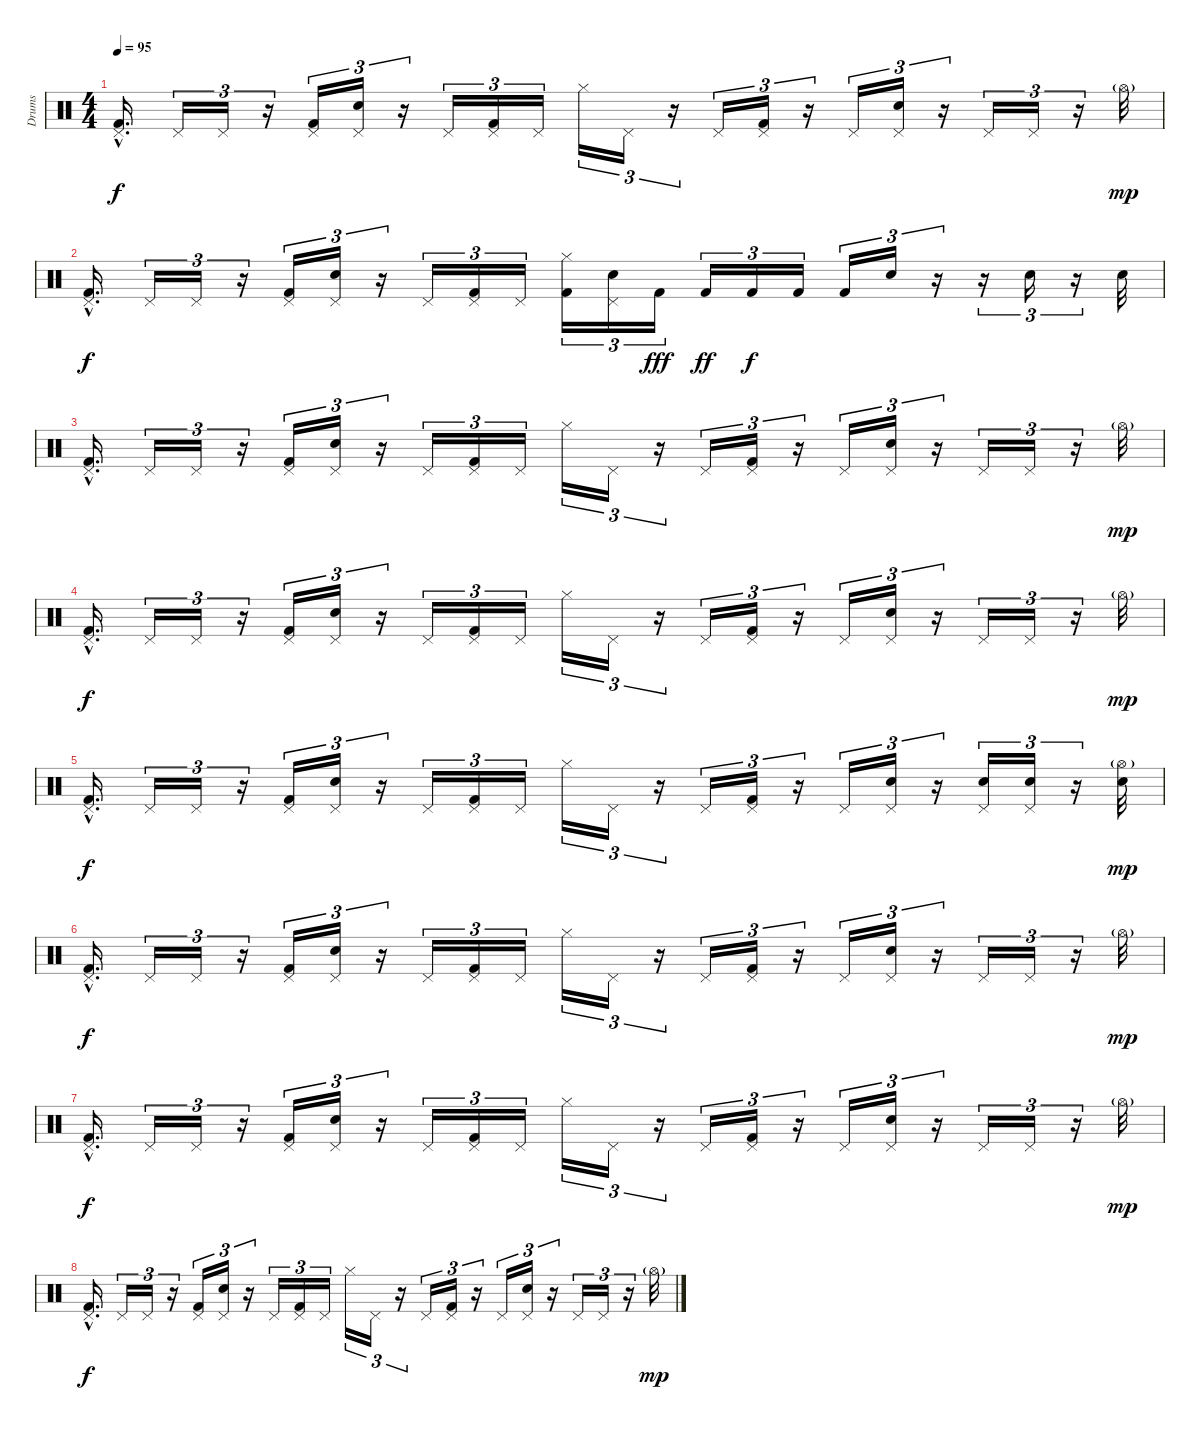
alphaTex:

\track ("Drums" "Drums") {instrument percussion}
\staff {score}
\articulation defaults
\ts (4 4)
\tempo 95
\clef neutral
\ks c
("Pedal Hi-Hat (hit)"{hac} "Kick (hit) 2"{hac}).16{d dy f} "Pedal Hi-Hat (hit)".16{tu (3 2)} "Pedal Hi-Hat (hit)".16{tu (3 2)} r.16{tu (3 2)} ("Pedal Hi-Hat (hit)" "Kick (hit) 2").16{tu (3 2)} ("Pedal Hi-Hat (hit)" "Electric Snare (hit)").16{tu (3 2)} r.16{tu (3 2)} "Pedal Hi-Hat (hit)".16{tu (3 2)} ("Pedal Hi-Hat (hit)" "Kick (hit) 2").16{tu (3 2)} "Pedal Hi-Hat (hit)".16{tu (3 2)} "Hi-Hat (closed)".16{tu (3 2)} "Pedal Hi-Hat (hit)".16{tu (3 2)} r.16{tu (3 2)} "Pedal Hi-Hat (hit)".16{tu (3 2)} ("Pedal Hi-Hat (hit)" "Kick (hit) 2").16{tu (3 2)} r.16{tu (3 2)} "Pedal Hi-Hat (hit)".16{tu (3 2)} ("Pedal Hi-Hat (hit)" "Electric Snare (hit)").16{tu (3 2)} r.16{tu (3 2)} "Pedal Hi-Hat (hit)".16{tu (3 2)} "Pedal Hi-Hat (hit)".16{tu (3 2)} r.16{tu (3 2)} "Hi-Hat (open)"{g}.32{dy mp} |
("Pedal Hi-Hat (hit)"{hac} "Kick (hit) 2"{hac}).16{d dy f} "Pedal Hi-Hat (hit)".16{tu (3 2)} "Pedal Hi-Hat (hit)".16{tu (3 2)} r.16{tu (3 2)} ("Pedal Hi-Hat (hit)" "Kick (hit) 2").16{tu (3 2)} ("Pedal Hi-Hat (hit)" "Electric Snare (hit)").16{tu (3 2)} r.16{tu (3 2)} "Pedal Hi-Hat (hit)".16{tu (3 2)} ("Pedal Hi-Hat (hit)" "Kick (hit) 2").16{tu (3 2)} "Pedal Hi-Hat (hit)".16{tu (3 2)} ("Hi-Hat (closed)" "Kick (hit) 2").16{tu (3 2)} ("Pedal Hi-Hat (hit)" "Electric Snare (hit)").16{tu (3 2)} "Kick (hit) 2".16{tu (3 2) dy fff} "Kick (hit) 2".16{tu (3 2) dy ff} "Kick (hit) 2".16{tu (3 2) dy f} "Kick (hit) 2".16{tu (3 2)} "Kick (hit) 2".16{tu (3 2)} "Electric Snare (hit)".16{tu (3 2)} r.16{tu (3 2)} r.16{tu (3 2)} "Electric Snare (hit)".16{tu (3 2)} r.16{tu (3 2)} "Electric Snare (hit)".32 |
("Pedal Hi-Hat (hit)"{hac} "Kick (hit) 2"{hac}).16{d} "Pedal Hi-Hat (hit)".16{tu (3 2)} "Pedal Hi-Hat (hit)".16{tu (3 2)} r.16{tu (3 2)} ("Pedal Hi-Hat (hit)" "Kick (hit) 2").16{tu (3 2)} ("Pedal Hi-Hat (hit)" "Electric Snare (hit)").16{tu (3 2)} r.16{tu (3 2)} "Pedal Hi-Hat (hit)".16{tu (3 2)} ("Pedal Hi-Hat (hit)" "Kick (hit) 2").16{tu (3 2)} "Pedal Hi-Hat (hit)".16{tu (3 2)} "Hi-Hat (closed)".16{tu (3 2)} "Pedal Hi-Hat (hit)".16{tu (3 2)} r.16{tu (3 2)} "Pedal Hi-Hat (hit)".16{tu (3 2)} ("Pedal Hi-Hat (hit)" "Kick (hit) 2").16{tu (3 2)} r.16{tu (3 2)} "Pedal Hi-Hat (hit)".16{tu (3 2)} ("Pedal Hi-Hat (hit)" "Electric Snare (hit)").16{tu (3 2)} r.16{tu (3 2)} "Pedal Hi-Hat (hit)".16{tu (3 2)} "Pedal Hi-Hat (hit)".16{tu (3 2)} r.16{tu (3 2)} "Hi-Hat (open)"{g}.32{dy mp} |
("Pedal Hi-Hat (hit)"{hac} "Kick (hit) 2"{hac}).16{d dy f volume 13} "Pedal Hi-Hat (hit)".16{tu (3 2)} "Pedal Hi-Hat (hit)".16{tu (3 2)} r.16{tu (3 2)} ("Pedal Hi-Hat (hit)" "Kick (hit) 2").16{tu (3 2)} ("Pedal Hi-Hat (hit)" "Electric Snare (hit)").16{tu (3 2)} r.16{tu (3 2)} "Pedal Hi-Hat (hit)".16{tu (3 2)} ("Pedal Hi-Hat (hit)" "Kick (hit) 2").16{tu (3 2)} "Pedal Hi-Hat (hit)".16{tu (3 2)} "Hi-Hat (closed)".16{tu (3 2)} "Pedal Hi-Hat (hit)".16{tu (3 2)} r.16{tu (3 2)} "Pedal Hi-Hat (hit)".16{tu (3 2)} ("Pedal Hi-Hat (hit)" "Kick (hit) 2").16{tu (3 2)} r.16{tu (3 2)} "Pedal Hi-Hat (hit)".16{tu (3 2)} ("Pedal Hi-Hat (hit)" "Electric Snare (hit)").16{tu (3 2)} r.16{tu (3 2)} "Pedal Hi-Hat (hit)".16{tu (3 2)} "Pedal Hi-Hat (hit)".16{tu (3 2)} r.16{tu (3 2)} "Hi-Hat (open)"{g}.32{dy mp} |
("Pedal Hi-Hat (hit)"{hac} "Kick (hit) 2"{hac}).16{d dy f} "Pedal Hi-Hat (hit)".16{tu (3 2)} "Pedal Hi-Hat (hit)".16{tu (3 2)} r.16{tu (3 2)} ("Pedal Hi-Hat (hit)" "Kick (hit) 2").16{tu (3 2)} ("Pedal Hi-Hat (hit)" "Electric Snare (hit)").16{tu (3 2)} r.16{tu (3 2)} "Pedal Hi-Hat (hit)".16{tu (3 2)} ("Pedal Hi-Hat (hit)" "Kick (hit) 2").16{tu (3 2)} "Pedal Hi-Hat (hit)".16{tu (3 2)} "Hi-Hat (closed)".16{tu (3 2)} "Pedal Hi-Hat (hit)".16{tu (3 2)} r.16{tu (3 2)} "Pedal Hi-Hat (hit)".16{tu (3 2)} ("Pedal Hi-Hat (hit)" "Kick (hit) 2").16{tu (3 2)} r.16{tu (3 2)} "Pedal Hi-Hat (hit)".16{tu (3 2)} ("Pedal Hi-Hat (hit)" "Electric Snare (hit)").16{tu (3 2)} r.16{tu (3 2)} ("Pedal Hi-Hat (hit)" "Electric Snare (hit)").16{tu (3 2)} ("Pedal Hi-Hat (hit)" "Electric Snare (hit)").16{tu (3 2)} r.16{tu (3 2)} ("Hi-Hat (open)"{g} "Electric Snare (hit)").32{dy mp} |
("Pedal Hi-Hat (hit)"{hac} "Kick (hit) 2"{hac}).16{d dy f} "Pedal Hi-Hat (hit)".16{tu (3 2)} "Pedal Hi-Hat (hit)".16{tu (3 2)} r.16{tu (3 2)} ("Pedal Hi-Hat (hit)" "Kick (hit) 2").16{tu (3 2)} ("Pedal Hi-Hat (hit)" "Electric Snare (hit)").16{tu (3 2)} r.16{tu (3 2)} "Pedal Hi-Hat (hit)".16{tu (3 2)} ("Pedal Hi-Hat (hit)" "Kick (hit) 2").16{tu (3 2)} "Pedal Hi-Hat (hit)".16{tu (3 2)} "Hi-Hat (closed)".16{tu (3 2)} "Pedal Hi-Hat (hit)".16{tu (3 2)} r.16{tu (3 2)} "Pedal Hi-Hat (hit)".16{tu (3 2)} ("Pedal Hi-Hat (hit)" "Kick (hit) 2").16{tu (3 2)} r.16{tu (3 2)} "Pedal Hi-Hat (hit)".16{tu (3 2)} ("Pedal Hi-Hat (hit)" "Electric Snare (hit)").16{tu (3 2)} r.16{tu (3 2)} "Pedal Hi-Hat (hit)".16{tu (3 2)} "Pedal Hi-Hat (hit)".16{tu (3 2)} r.16{tu (3 2)} "Hi-Hat (open)"{g}.32{dy mp} |
("Pedal Hi-Hat (hit)"{hac} "Kick (hit) 2"{hac}).16{d dy f} "Pedal Hi-Hat (hit)".16{tu (3 2)} "Pedal Hi-Hat (hit)".16{tu (3 2)} r.16{tu (3 2)} ("Pedal Hi-Hat (hit)" "Kick (hit) 2").16{tu (3 2)} ("Pedal Hi-Hat (hit)" "Electric Snare (hit)").16{tu (3 2)} r.16{tu (3 2)} "Pedal Hi-Hat (hit)".16{tu (3 2)} ("Pedal Hi-Hat (hit)" "Kick (hit) 2").16{tu (3 2)} "Pedal Hi-Hat (hit)".16{tu (3 2)} "Hi-Hat (closed)".16{tu (3 2)} "Pedal Hi-Hat (hit)".16{tu (3 2)} r.16{tu (3 2)} "Pedal Hi-Hat (hit)".16{tu (3 2)} ("Pedal Hi-Hat (hit)" "Kick (hit) 2").16{tu (3 2)} r.16{tu (3 2)} "Pedal Hi-Hat (hit)".16{tu (3 2)} ("Pedal Hi-Hat (hit)" "Electric Snare (hit)").16{tu (3 2)} r.16{tu (3 2)} "Pedal Hi-Hat (hit)".16{tu (3 2)} "Pedal Hi-Hat (hit)".16{tu (3 2)} r.16{tu (3 2)} "Hi-Hat (open)"{g}.32{dy mp} |
("Pedal Hi-Hat (hit)"{hac} "Kick (hit) 2"{hac}).16{d dy f} "Pedal Hi-Hat (hit)".16{tu (3 2)} "Pedal Hi-Hat (hit)".16{tu (3 2)} r.16{tu (3 2)} ("Pedal Hi-Hat (hit)" "Kick (hit) 2").16{tu (3 2)} ("Pedal Hi-Hat (hit)" "Electric Snare (hit)").16{tu (3 2)} r.16{tu (3 2)} "Pedal Hi-Hat (hit)".16{tu (3 2)} ("Pedal Hi-Hat (hit)" "Kick (hit) 2").16{tu (3 2)} "Pedal Hi-Hat (hit)".16{tu (3 2)} "Hi-Hat (closed)".16{tu (3 2)} "Pedal Hi-Hat (hit)".16{tu (3 2)} r.16{tu (3 2)} "Pedal Hi-Hat (hit)".16{tu (3 2)} ("Pedal Hi-Hat (hit)" "Kick (hit) 2").16{tu (3 2)} r.16{tu (3 2)} "Pedal Hi-Hat (hit)".16{tu (3 2)} ("Pedal Hi-Hat (hit)" "Electric Snare (hit)").16{tu (3 2)} r.16{tu (3 2)} "Pedal Hi-Hat (hit)".16{tu (3 2)} "Pedal Hi-Hat (hit)".16{tu (3 2)} r.16{tu (3 2)} "Hi-Hat (open)"{g}.32{dy mp}
